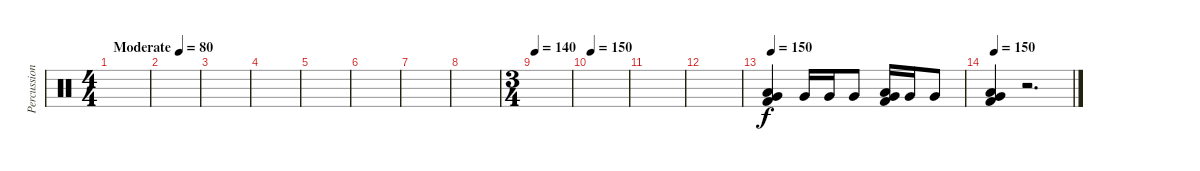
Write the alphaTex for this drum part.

\track ("Percussion" "Percussion") {instrument percussion}
\staff {score}
\articulation defaults
\ts (4 4)
\tempo (80 "Moderate")
\clef neutral
\ks c
|
|
|
|
|
|
|
|
\ts (3 4)
\tempo 140
|
\tempo 150
|
|
|
\tempo 150
("Low Floor Tom (hit)" "Kick (hit) 2" "Very Low Tom (hit)").4 "Very Low Tom (hit)".16 "Very Low Tom (hit)".16 "Very Low Tom (hit)".8 ("Low Floor Tom (hit)" "Kick (hit) 2" "Very Low Tom (hit)").16 "Very Low Tom (hit)".16 "Very Low Tom (hit)".8 |
\tempo 150
("Kick (hit) 2" "Low Floor Tom (hit)" "Very Low Tom (hit)").4 r.2{d}
